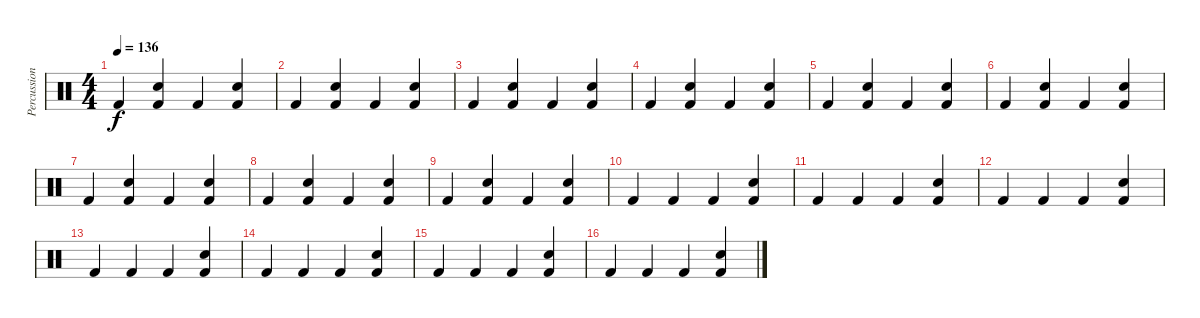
\track ("Percussion" "Percussion") {instrument percussion}
\staff {score}
\articulation defaults
\ts (4 4)
\tempo 136
\clef neutral
\ks c "Kick (hit) 2".4{dy f}
("Kick (hit) 2" "Snare (hit) 2").4 "Kick (hit) 2".4 ("Kick (hit) 2" "Snare (hit) 2").4 |
"Kick (hit) 2".4 ("Kick (hit) 2" "Snare (hit) 2").4 "Kick (hit) 2".4 ("Kick (hit) 2" "Snare (hit) 2").4 |
"Kick (hit) 2".4 ("Kick (hit) 2" "Snare (hit) 2").4 "Kick (hit) 2".4 ("Kick (hit) 2" "Snare (hit) 2").4 |
"Kick (hit) 2".4 ("Kick (hit) 2" "Snare (hit) 2").4 "Kick (hit) 2".4 ("Kick (hit) 2" "Snare (hit) 2").4 |
"Kick (hit) 2".4 ("Kick (hit) 2" "Snare (hit) 2").4 "Kick (hit) 2".4 ("Kick (hit) 2" "Snare (hit) 2").4 |
"Kick (hit) 2".4 ("Kick (hit) 2" "Snare (hit) 2").4 "Kick (hit) 2".4 ("Kick (hit) 2" "Snare (hit) 2").4 |
"Kick (hit) 2".4 ("Kick (hit) 2" "Snare (hit) 2").4 "Kick (hit) 2".4 ("Kick (hit) 2" "Snare (hit) 2").4 |
"Kick (hit) 2".4 ("Kick (hit) 2" "Snare (hit) 2").4 "Kick (hit) 2".4 ("Kick (hit) 2" "Snare (hit) 2").4 |
"Kick (hit) 2".4 ("Kick (hit) 2" "Snare (hit) 2").4 "Kick (hit) 2".4 ("Kick (hit) 2" "Snare (hit) 2").4 |
"Kick (hit) 2".4 "Kick (hit) 2".4 "Kick (hit) 2".4 ("Kick (hit) 2" "Snare (hit) 2").4 |
"Kick (hit) 2".4 "Kick (hit) 2".4 "Kick (hit) 2".4 ("Kick (hit) 2" "Snare (hit) 2").4 |
"Kick (hit) 2".4 "Kick (hit) 2".4 "Kick (hit) 2".4 ("Kick (hit) 2" "Snare (hit) 2").4 |
"Kick (hit) 2".4 "Kick (hit) 2".4 "Kick (hit) 2".4 ("Kick (hit) 2" "Snare (hit) 2").4 |
"Kick (hit) 2".4 "Kick (hit) 2".4 "Kick (hit) 2".4 ("Kick (hit) 2" "Snare (hit) 2").4 |
"Kick (hit) 2".4 "Kick (hit) 2".4 "Kick (hit) 2".4 ("Kick (hit) 2" "Snare (hit) 2").4 |
"Kick (hit) 2".4 "Kick (hit) 2".4 "Kick (hit) 2".4 ("Kick (hit) 2" "Snare (hit) 2").4
